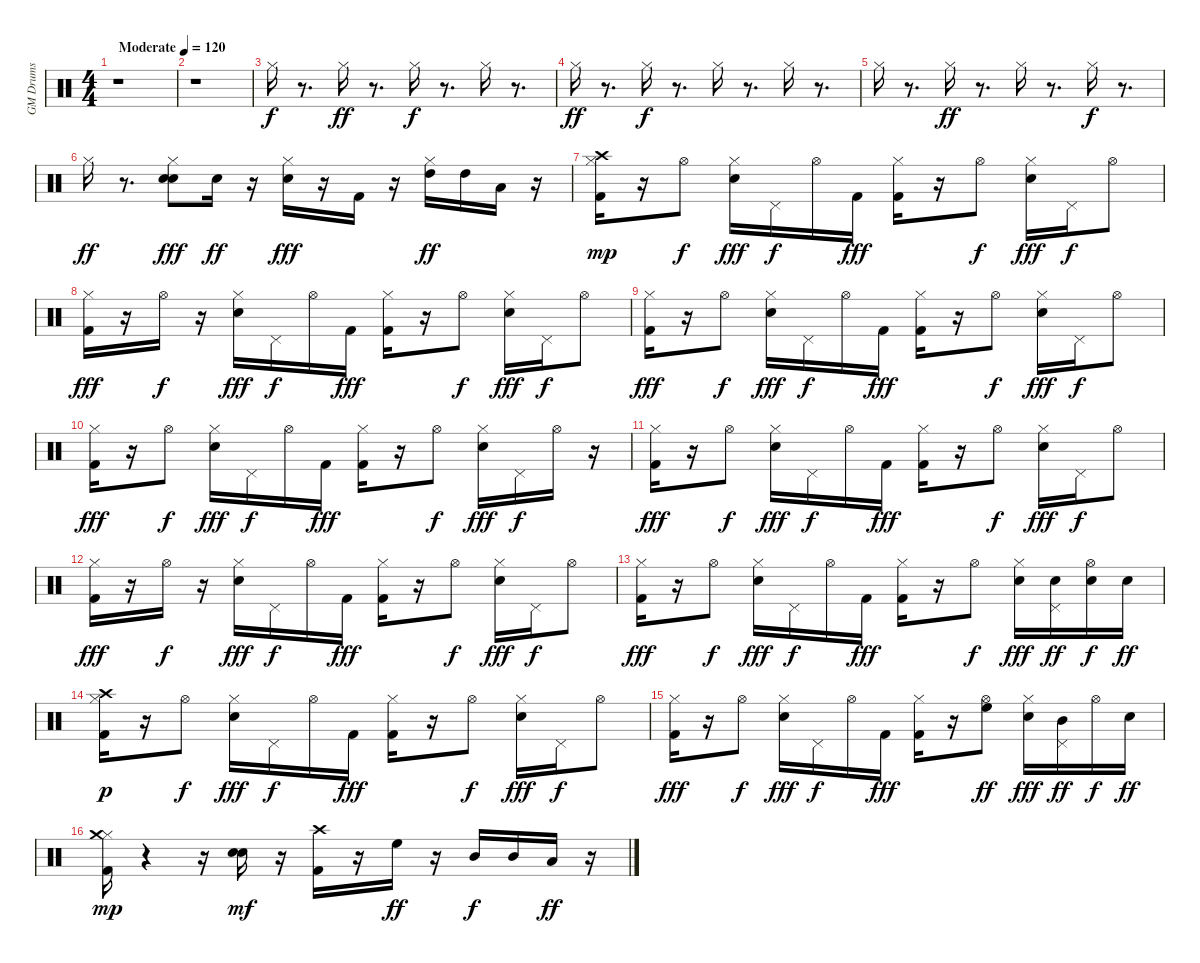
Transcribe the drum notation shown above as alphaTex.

\track ("GM Drums" "GM Drums") {instrument percussion}
\staff {score}
\articulation defaults
\ts (4 4)
\tempo (120 "Moderate")
\clef neutral
\ks c
r.1{dy f} |
r.1 |
"Hi-Hat (closed)".16 r.8{d} "Hi-Hat (closed)".16{dy ff} r.8{d} "Hi-Hat (closed)".16{dy f} r.8{d} "Hi-Hat (closed)".16 r.8{d} |
"Hi-Hat (closed)".16{dy ff} r.8{d} "Hi-Hat (closed)".16{dy f} r.8{d} "Hi-Hat (closed)".16 r.8{d} "Hi-Hat (closed)".16 r.8{d} |
"Hi-Hat (closed)".16 r.8{d} "Hi-Hat (closed)".16{dy ff} r.8{d} "Hi-Hat (closed)".16 r.8{d} "Hi-Hat (closed)".16{dy f} r.8{d} |
"Hi-Hat (closed)".16{dy ff} r.8{d} ("Electric Snare (hit)" "Electric Snare (hit)" "Hi-Hat (closed)").8{dy fff} "Electric Snare (hit)".16{dy ff} r.16 ("Electric Snare (hit)" "Hi-Hat (closed)").16{dy fff} r.16 "Kick (hit) 2".16 r.16 ("Hi-Hat (closed)" "High Tom (hit)").16{dy ff} "High Tom (hit)".16 "Low Tom (hit)".16 r.16 |
("Kick (hit) 2" "Hi-Hat (closed)" "Crash high (hit)").16{dy mp} r.16 "Hi-Hat (open)".8{dy f} ("Electric Snare (hit)" "Hi-Hat (closed)").16{dy fff} "Pedal Hi-Hat (hit)".16{dy f} "Hi-Hat (open)".16 "Kick (hit) 2".16{dy fff} ("Kick (hit) 2" "Hi-Hat (closed)").16 r.16 "Hi-Hat (open)".8{dy f} ("Electric Snare (hit)" "Hi-Hat (closed)").16{dy fff} "Pedal Hi-Hat (hit)".16{dy f} "Hi-Hat (open)".8 |
("Kick (hit) 2" "Hi-Hat (closed)").16{dy fff} r.16 "Hi-Hat (open)".16{dy f} r.16 ("Electric Snare (hit)" "Hi-Hat (closed)").16{dy fff} "Pedal Hi-Hat (hit)".16{dy f} "Hi-Hat (open)".16 "Kick (hit) 2".16{dy fff} ("Kick (hit) 2" "Hi-Hat (closed)").16 r.16 "Hi-Hat (open)".8{dy f} ("Electric Snare (hit)" "Hi-Hat (closed)").16{dy fff} "Pedal Hi-Hat (hit)".16{dy f} "Hi-Hat (open)".8 |
("Kick (hit) 2" "Hi-Hat (closed)").16{dy fff} r.16 "Hi-Hat (open)".8{dy f} ("Electric Snare (hit)" "Hi-Hat (closed)").16{dy fff} "Pedal Hi-Hat (hit)".16{dy f} "Hi-Hat (open)".16 "Kick (hit) 2".16{dy fff} ("Kick (hit) 2" "Hi-Hat (closed)").16 r.16 "Hi-Hat (open)".8{dy f} ("Electric Snare (hit)" "Hi-Hat (closed)").16{dy fff} "Pedal Hi-Hat (hit)".16{dy f} "Hi-Hat (open)".8 |
("Kick (hit) 2" "Hi-Hat (closed)").16{dy fff} r.16 "Hi-Hat (open)".8{dy f} ("Electric Snare (hit)" "Hi-Hat (closed)").16{dy fff} "Pedal Hi-Hat (hit)".16{dy f} "Hi-Hat (open)".16 "Kick (hit) 2".16{dy fff} ("Kick (hit) 2" "Hi-Hat (closed)").16 r.16 "Hi-Hat (open)".8{dy f} ("Electric Snare (hit)" "Hi-Hat (closed)").16{dy fff} "Pedal Hi-Hat (hit)".16{dy f} "Hi-Hat (open)".16 r.16 |
("Kick (hit) 2" "Hi-Hat (closed)").16{dy fff} r.16 "Hi-Hat (open)".8{dy f} ("Electric Snare (hit)" "Hi-Hat (closed)").16{dy fff} "Pedal Hi-Hat (hit)".16{dy f} "Hi-Hat (open)".16 "Kick (hit) 2".16{dy fff} ("Kick (hit) 2" "Hi-Hat (closed)").16 r.16 "Hi-Hat (open)".8{dy f} ("Electric Snare (hit)" "Hi-Hat (closed)").16{dy fff} "Pedal Hi-Hat (hit)".16{dy f} "Hi-Hat (open)".8 |
("Kick (hit) 2" "Hi-Hat (closed)").16{dy fff} r.16 "Hi-Hat (open)".16{dy f} r.16 ("Electric Snare (hit)" "Hi-Hat (closed)").16{dy fff} "Pedal Hi-Hat (hit)".16{dy f} "Hi-Hat (open)".16 "Kick (hit) 2".16{dy fff} ("Kick (hit) 2" "Hi-Hat (closed)").16 r.16 "Hi-Hat (open)".8{dy f} ("Electric Snare (hit)" "Hi-Hat (closed)").16{dy fff} "Pedal Hi-Hat (hit)".16{dy f} "Hi-Hat (open)".8 |
("Kick (hit) 2" "Hi-Hat (closed)").16{dy fff} r.16 "Hi-Hat (open)".8{dy f} ("Electric Snare (hit)" "Hi-Hat (closed)").16{dy fff} "Pedal Hi-Hat (hit)".16{dy f} "Hi-Hat (open)".16 "Kick (hit) 2".16{dy fff} ("Kick (hit) 2" "Hi-Hat (closed)").16 r.16 "Hi-Hat (open)".8{dy f} ("Electric Snare (hit)" "Hi-Hat (closed)").16{dy fff} ("Electric Snare (hit)" "Pedal Hi-Hat (hit)").16{dy ff} ("Electric Snare (hit)" "Hi-Hat (open)").16{dy f} "Electric Snare (hit)".16{dy ff} |
("Kick (hit) 2" "Hi-Hat (closed)" "Crash high (hit)").16{dy p} r.16 "Hi-Hat (open)".8{dy f} ("Electric Snare (hit)" "Hi-Hat (closed)").16{dy fff} "Pedal Hi-Hat (hit)".16{dy f} "Hi-Hat (open)".16 "Kick (hit) 2".16{dy fff} ("Kick (hit) 2" "Hi-Hat (closed)").16 r.16 "Hi-Hat (open)".8{dy f} ("Electric Snare (hit)" "Hi-Hat (closed)").16{dy fff} "Pedal Hi-Hat (hit)".16{dy f} "Hi-Hat (open)".8 |
("Kick (hit) 2" "Hi-Hat (closed)").16{dy fff} r.16 "Hi-Hat (open)".8{dy f} ("Electric Snare (hit)" "Hi-Hat (closed)").16{dy fff} "Pedal Hi-Hat (hit)".16{dy f} "Hi-Hat (open)".16 "Kick (hit) 2".16{dy fff} ("Kick (hit) 2" "Hi-Hat (closed)").16 r.16 ("Hi-Hat (open)" "High Floor Tom (hit)").8{dy ff} ("Electric Snare (hit)" "Hi-Hat (closed)").16{dy fff} ("Pedal Hi-Hat (hit)" "Mid Tom (hit)").16{dy ff} "Hi-Hat (open)".16{dy f} "Electric Snare (hit)".16{dy ff} |
("Kick (hit) 2" "Hi-Hat (closed)" "Crash medium (hit)").16{dy mp} r.4 r.16 ("Electric Snare (hit)" "Electric Snare (hit)").16{dy mf} r.16 ("Kick (hit) 2" "Crash high (hit)").16 r.16 "High Floor Tom (hit)".16{dy ff} r.16 "Mid Tom (hit)".16{dy f} "Mid Tom (hit)".16 "Low Tom (hit)".16{dy ff} r.16
